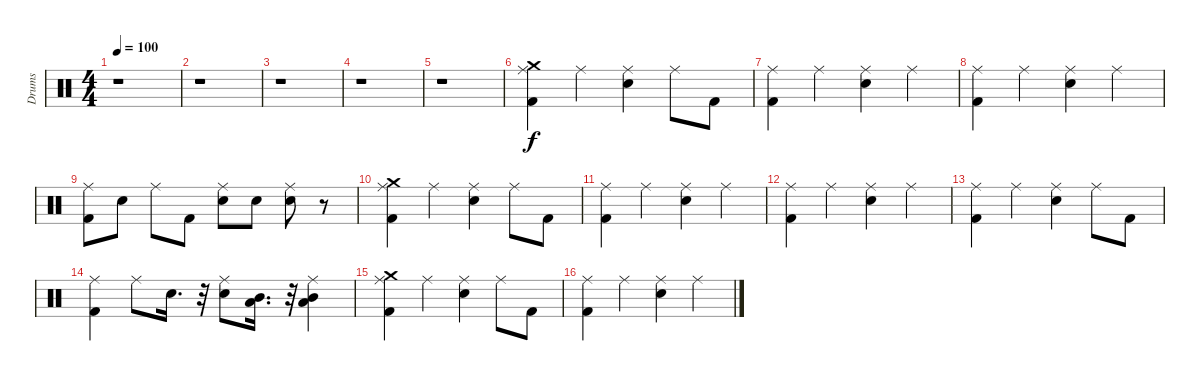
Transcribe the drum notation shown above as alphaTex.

\track ("Drums" "Drums") {instrument percussion}
\staff {score}
\articulation defaults
\ts (4 4)
\tempo 100
\clef neutral
\ks c
r.1{dy f} |
r.1 |
r.1 |
r.1 |
r.1 |
("Ride (middle)" "Kick (hit) 2" "Crash medium (hit)").4 "Ride (middle)".4 ("Snare (hit) 2" "Ride (middle)").4 "Ride (middle)".8 "Kick (hit) 2".8 |
("Ride (middle)" "Kick (hit) 2").4 "Ride (middle)".4 ("Ride (middle)" "Snare (hit) 2").4 "Ride (middle)".4 |
("Ride (middle)" "Kick (hit) 2").4 "Ride (middle)".4 ("Ride (middle)" "Snare (hit) 2").4 "Ride (middle)".4 |
("Ride (middle)" "Kick (hit) 2").8 "Snare (hit) 2".8 "Ride (middle)".8 "Kick (hit) 2".8 ("Snare (hit) 2" "Ride (middle)").8 "Snare (hit) 2".8 ("Snare (hit) 2" "Ride (middle)").8 r.8 |
("Ride (middle)" "Kick (hit) 2" "Crash medium (hit)").4 "Ride (middle)".4 ("Snare (hit) 2" "Ride (middle)").4 "Ride (middle)".8 "Kick (hit) 2".8 |
("Ride (middle)" "Kick (hit) 2").4 "Ride (middle)".4 ("Ride (middle)" "Snare (hit) 2").4 "Ride (middle)".4 |
("Ride (middle)" "Kick (hit) 2").4 "Ride (middle)".4 ("Ride (middle)" "Snare (hit) 2").4 "Ride (middle)".4 |
("Ride (middle)" "Kick (hit) 2").4 "Ride (middle)".4 ("Snare (hit) 2" "Ride (middle)").4 "Ride (middle)".8 "Kick (hit) 2".8 |
("Ride (middle)" "Kick (hit) 2").4 "Ride (middle)".8 "Snare (hit) 2".16{d} r.32 ("Snare (hit) 2" "Ride (middle)").8 ("Mid Tom (hit)" "Low Tom (hit)").16{d} r.32 ("Low Tom (hit)" "Mid Tom (hit)" "Ride (middle)").4 |
("Ride (middle)" "Kick (hit) 2" "Crash medium (hit)").4 "Ride (middle)".4 ("Snare (hit) 2" "Ride (middle)").4 "Ride (middle)".8 "Kick (hit) 2".8 |
("Ride (middle)" "Kick (hit) 2").4 "Ride (middle)".4 ("Ride (middle)" "Snare (hit) 2").4 "Ride (middle)".4
